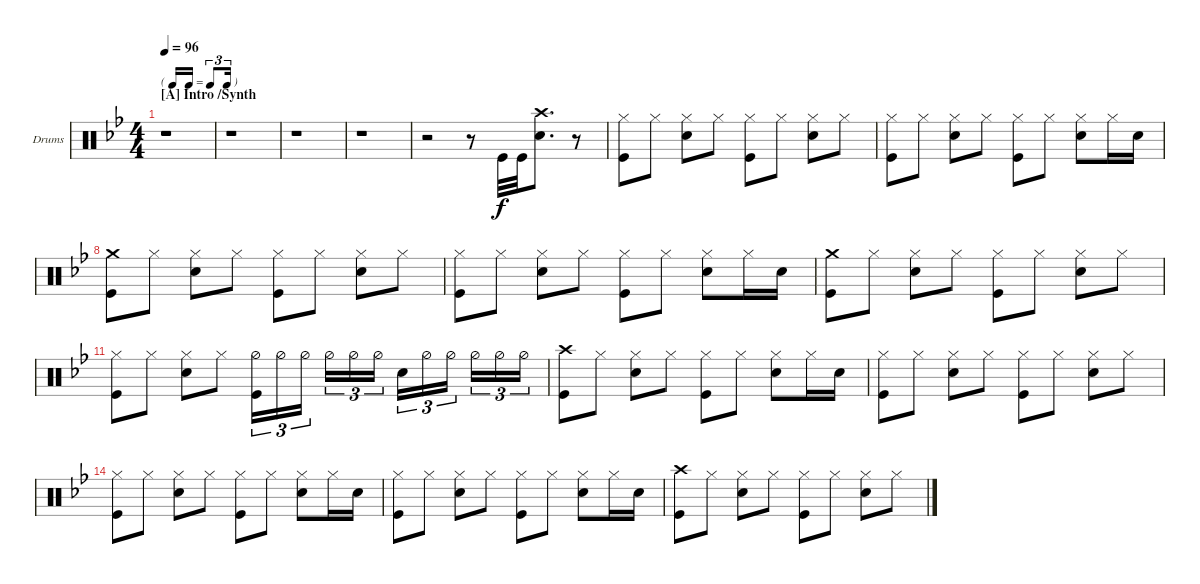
\bracketExtendMode nobrackets
\firstSystemTrackNameOrientation horizontal
\otherSystemsTrackNameOrientation horizontal
\defaultBarNumberDisplay FirstOfSystem
\track ("Randy Castillo" "Drums") {instrument percussion}
\staff {score}
\articulation defaults
\ts (4 4)
\tf triplet16th
\section ("A" "Intro /Synth")
\tempo 96
\clef neutral
\scale
0.436511
\ks bb
r.1{dy f} |
\scale
0.318701 r.1 |
\scale
0.244726 r.1 |
\scale
0.379106 r.1 |
\scale
0.393176 r.2 r.8 "Kick (hit)".32 "Kick (hit)".32 ("Snare (hit) 2" "Crash high (hit)").8{d} r.8 |
\scale
0.356325 ("Kick (hit)" "Hi-Hat (closed)").8 "Hi-Hat (closed)".8 ("Hi-Hat (closed)" "Snare (hit) 2").8 "Hi-Hat (closed)".8 ("Hi-Hat (closed)" "Kick (hit)").8 "Hi-Hat (closed)".8 ("Hi-Hat (closed)" "Snare (hit) 2").8 "Hi-Hat (closed)".8 |
\scale
0.37208 ("Kick (hit)" "Hi-Hat (closed)").8 "Hi-Hat (closed)".8 ("Hi-Hat (closed)" "Snare (hit) 2").8 "Hi-Hat (closed)".8 ("Hi-Hat (closed)" "Kick (hit)").8 "Hi-Hat (closed)".8 ("Hi-Hat (closed)" "Snare (hit) 2").8 "Hi-Hat (closed)".16 "Snare (hit) 2".16 |
\scale
0.488687 ("Kick (hit)" "Crash medium (hit)").8 "Hi-Hat (closed)".8 ("Hi-Hat (closed)" "Snare (hit) 2").8 "Hi-Hat (closed)".8 ("Hi-Hat (closed)" "Kick (hit)").8 "Hi-Hat (closed)".8 ("Hi-Hat (closed)" "Snare (hit) 2").8 "Hi-Hat (closed)".8 |
\scale
0.511419 ("Kick (hit)" "Hi-Hat (closed)").8 "Hi-Hat (closed)".8 ("Hi-Hat (closed)" "Snare (hit) 2").8 "Hi-Hat (closed)".8 ("Hi-Hat (closed)" "Kick (hit)").8 "Hi-Hat (closed)".8 ("Hi-Hat (closed)" "Snare (hit) 2").8 "Hi-Hat (closed)".16 "Snare (hit) 2".16 |
\scale
0.413425 ("Kick (hit)" "Crash medium (hit)").8 "Hi-Hat (closed)".8 ("Hi-Hat (closed)" "Snare (hit) 2").8 "Hi-Hat (closed)".8 ("Hi-Hat (closed)" "Kick (hit)").8 "Hi-Hat (closed)".8 ("Hi-Hat (closed)" "Snare (hit) 2").8 "Hi-Hat (closed)".8 |
\scale
0.434606 ("Kick (hit)" "Hi-Hat (closed)").8 "Hi-Hat (closed)".8 ("Hi-Hat (closed)" "Snare (hit) 2").8 "Hi-Hat (closed)".8 ("Hi-Hat (half)" "Kick (hit)").16{tu (3 2)} "Hi-Hat (half)".16{tu (3 2)} "Hi-Hat (half)".16{tu (3 2)} "Hi-Hat (half)".16{tu (3 2)} "Hi-Hat (half)".16{tu (3 2)} "Hi-Hat (half)".16{tu (3 2)} "Snare (hit) 2".16{tu (3 2)} "Hi-Hat (half)".16{tu (3 2)} "Hi-Hat (half)".16{tu (3 2)} "Hi-Hat (half)".16{tu (3 2)} "Hi-Hat (half)".16{tu (3 2)} "Hi-Hat (half)".16{tu (3 2)} |
\scale
0.493532 ("Kick (hit)" "Crash high (hit)").8 "Hi-Hat (closed)".8 ("Hi-Hat (closed)" "Snare (hit) 2").8 "Hi-Hat (closed)".8 ("Hi-Hat (closed)" "Kick (hit)").8 "Hi-Hat (closed)".8 ("Hi-Hat (closed)" "Snare (hit) 2").8 "Hi-Hat (closed)".16 "Snare (hit) 2".16 |
\scale
0.512264 ("Kick (hit)" "Hi-Hat (closed)").8 "Hi-Hat (closed)".8 ("Hi-Hat (closed)" "Snare (hit) 2").8 "Hi-Hat (closed)".8 ("Hi-Hat (closed)" "Kick (hit)").8 "Hi-Hat (closed)".8 ("Hi-Hat (closed)" "Snare (hit) 2").8 "Hi-Hat (closed)".8 |
\scale
0.483076 ("Kick (hit)" "Hi-Hat (closed)").8 "Hi-Hat (closed)".8 ("Hi-Hat (closed)" "Snare (hit) 2").8 "Hi-Hat (closed)".8 ("Hi-Hat (closed)" "Kick (hit)").8 "Hi-Hat (closed)".8 ("Hi-Hat (closed)" "Snare (hit) 2").8 "Hi-Hat (closed)".16 "Snare (hit) 2".16 |
\scale
0.483758 ("Kick (hit)" "Hi-Hat (closed)").8 "Hi-Hat (closed)".8 ("Hi-Hat (closed)" "Snare (hit) 2").8 "Hi-Hat (closed)".8 ("Hi-Hat (closed)" "Kick (hit)").8 "Hi-Hat (closed)".8 ("Hi-Hat (closed)" "Snare (hit) 2").8 "Hi-Hat (closed)".16 "Snare (hit) 2".16 |
\scale
0.50748 ("Kick (hit)" "Crash high (hit)").8 "Hi-Hat (closed)".8 ("Hi-Hat (closed)" "Snare (hit) 2").8 "Hi-Hat (closed)".8 ("Hi-Hat (closed)" "Kick (hit)").8 "Hi-Hat (closed)".8 ("Hi-Hat (closed)" "Snare (hit) 2").8 "Hi-Hat (closed)".8
